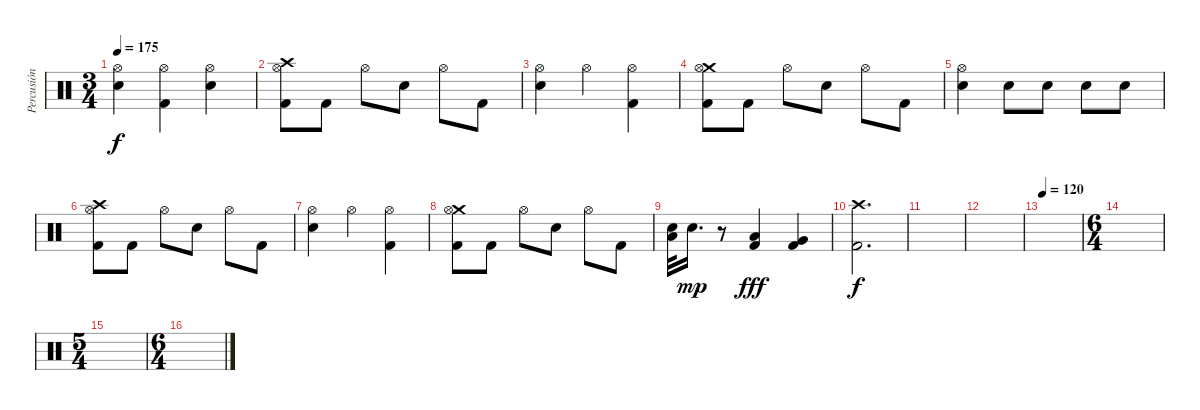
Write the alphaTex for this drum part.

\track ("Percusión" "Percusión") {instrument percussion}
\staff {score}
\articulation defaults
\ts (3 4)
\tempo 175
\clef neutral
\ks c
("Hi-Hat (open)" "Snare (hit) 2").4{dy f} ("Hi-Hat (open)" "Kick (hit) 2").4 ("Hi-Hat (open)" "Snare (hit) 2").4 |
("Crash high (hit)" "Hi-Hat (open)" "Kick (hit) 2").8 "Kick (hit) 2".8 "Hi-Hat (open)".8 "Snare (hit) 2".8 "Hi-Hat (open)".8 "Kick (hit) 2".8 |
("Hi-Hat (open)" "Snare (hit) 2").4 "Hi-Hat (open)".4 ("Hi-Hat (open)" "Kick (hit) 2").4 |
("Crash medium (hit)" "Hi-Hat (open)" "Kick (hit) 2").8 "Kick (hit) 2".8 "Hi-Hat (open)".8 "Snare (hit) 2".8 "Hi-Hat (open)".8 "Kick (hit) 2".8 |
("Hi-Hat (open)" "Snare (hit) 2").4 "Snare (hit) 2".8 "Snare (hit) 2".8 "Snare (hit) 2".8 "Snare (hit) 2".8 |
("Crash high (hit)" "Hi-Hat (open)" "Kick (hit) 2").8 "Kick (hit) 2".8 "Hi-Hat (open)".8 "Snare (hit) 2".8 "Hi-Hat (open)".8 "Kick (hit) 2".8 |
("Hi-Hat (open)" "Snare (hit) 2").4 "Hi-Hat (open)".4 ("Hi-Hat (open)" "Kick (hit) 2").4 |
("Crash medium (hit)" "Hi-Hat (open)" "Kick (hit) 2").8 "Kick (hit) 2".8 "Hi-Hat (open)".8 "Snare (hit) 2".8 "Hi-Hat (open)".8 "Kick (hit) 2".8 |
("Low Floor Tom (hit)" "Snare (hit) 2").32 "Snare (hit) 2".16{d dy mp} r.8 ("Low Tom (hit)" "Kick (hit) 2").4{dy fff} ("Very Low Tom (hit)" "Kick (hit) 2").4 |
("Crash high (hit)" "Kick (hit) 2").2{d dy f} |
|
|
\tempo 120
|
\ts (6 4)
|
\ts (5 4)
|
\ts (6 4)
